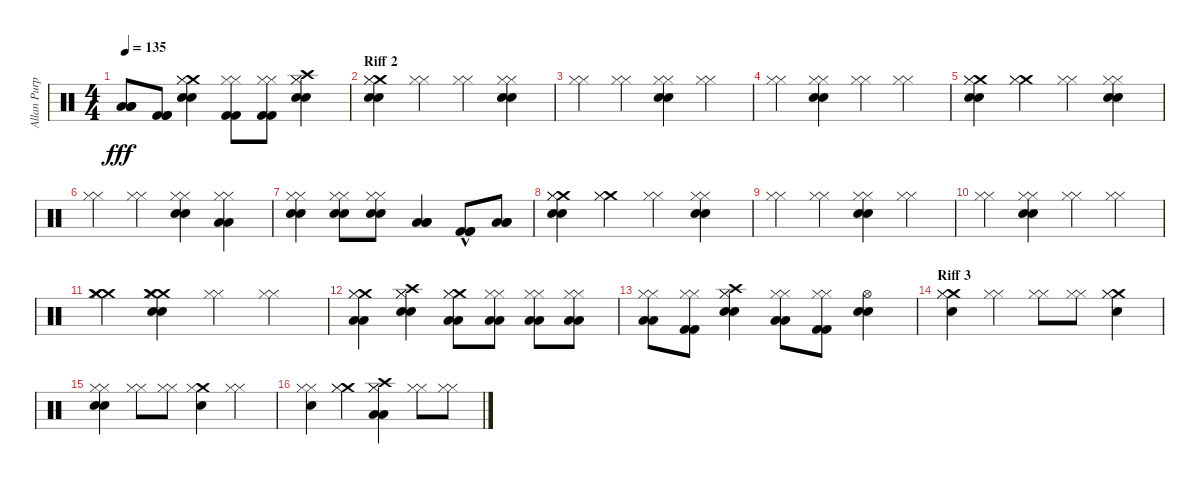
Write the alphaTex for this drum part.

\track ("Allan Purple" "Allan Purp") {instrument percussion}
\staff {score}
\articulation defaults
\ts (4 4)
\tempo 135
\clef neutral
\ks c
("Low Tom (hit)" "Low Tom (hit)" "Low Tom (hit)").8{dy fff} ("Kick (hit) 2" "Kick (hit) 2" "Kick (hit) 2").8 ("Crash medium (hit)" "Hi-Hat (closed)" "Hi-Hat (closed)" "Electric Snare (hit)" "Electric Snare (hit)").4 ("Hi-Hat (closed)" "Hi-Hat (closed)" "Kick (hit) 2" "Kick (hit) 2").8 ("Hi-Hat (closed)" "Hi-Hat (closed)" "Kick (hit) 2" "Kick (hit) 2").8 ("Crash high (hit)" "Hi-Hat (closed)" "Hi-Hat (closed)" "Electric Snare (hit)" "Electric Snare (hit)").4 |
\section ("" "Riff 2")
("Crash medium (hit)" "Hi-Hat (closed)" "Hi-Hat (closed)" "Electric Snare (hit)" "Electric Snare (hit)").4 ("Hi-Hat (closed)" "Hi-Hat (closed)").4 ("Hi-Hat (closed)" "Hi-Hat (closed)").4 ("Hi-Hat (closed)" "Hi-Hat (closed)" "Electric Snare (hit)" "Electric Snare (hit)").4 |
("Hi-Hat (closed)" "Hi-Hat (closed)").4 ("Hi-Hat (closed)" "Hi-Hat (closed)").4 ("Hi-Hat (closed)" "Hi-Hat (closed)" "Electric Snare (hit)" "Electric Snare (hit)").4 ("Hi-Hat (closed)" "Hi-Hat (closed)").4 |
("Hi-Hat (closed)" "Hi-Hat (closed)").4 ("Hi-Hat (closed)" "Hi-Hat (closed)" "Electric Snare (hit)" "Electric Snare (hit)").4 ("Hi-Hat (closed)" "Hi-Hat (closed)").4 ("Hi-Hat (closed)" "Hi-Hat (closed)").4 |
("Crash medium (hit)" "Hi-Hat (closed)" "Hi-Hat (closed)" "Electric Snare (hit)" "Electric Snare (hit)").4 ("Crash medium (hit)" "Hi-Hat (closed)" "Hi-Hat (closed)").4 ("Hi-Hat (closed)" "Hi-Hat (closed)").4 ("Hi-Hat (closed)" "Hi-Hat (closed)" "Electric Snare (hit)" "Electric Snare (hit)").4 |
("Hi-Hat (closed)" "Hi-Hat (closed)").4 ("Hi-Hat (closed)" "Hi-Hat (closed)").4 ("Hi-Hat (closed)" "Hi-Hat (closed)" "Electric Snare (hit)" "Electric Snare (hit)").4 ("Hi-Hat (closed)" "Hi-Hat (closed)" "Low Tom (hit)" "Low Tom (hit)").4 |
("Hi-Hat (closed)" "Hi-Hat (closed)" "Electric Snare (hit)" "Electric Snare (hit)").4 ("Hi-Hat (closed)" "Hi-Hat (closed)" "Electric Snare (hit)" "Electric Snare (hit)").8 ("Hi-Hat (closed)" "Hi-Hat (closed)" "Electric Snare (hit)" "Electric Snare (hit)").8 ("Low Tom (hit)" "Low Tom (hit)" "Low Tom (hit)").4 ("Kick (hit) 2" "Kick (hit) 2"{hac} "Kick (hit) 2").8 ("Low Tom (hit)" "Low Tom (hit)" "Low Tom (hit)").8 |
("Crash medium (hit)" "Hi-Hat (closed)" "Hi-Hat (closed)" "Electric Snare (hit)" "Electric Snare (hit)").4 ("Crash medium (hit)" "Hi-Hat (closed)" "Hi-Hat (closed)").4 ("Hi-Hat (closed)" "Hi-Hat (closed)").4 ("Hi-Hat (closed)" "Hi-Hat (closed)" "Electric Snare (hit)" "Electric Snare (hit)").4 |
("Hi-Hat (closed)" "Hi-Hat (closed)").4 ("Hi-Hat (closed)" "Hi-Hat (closed)").4 ("Hi-Hat (closed)" "Hi-Hat (closed)" "Electric Snare (hit)" "Electric Snare (hit)").4 ("Hi-Hat (closed)" "Hi-Hat (closed)").4 |
("Hi-Hat (closed)" "Hi-Hat (closed)").4 ("Hi-Hat (closed)" "Hi-Hat (closed)" "Electric Snare (hit)" "Electric Snare (hit)").4 ("Hi-Hat (closed)" "Hi-Hat (closed)").4 ("Hi-Hat (closed)" "Hi-Hat (closed)").4 |
("Crash medium (hit)" "Crash medium (hit)" "Hi-Hat (closed)" "Hi-Hat (closed)").4 ("Crash medium (hit)" "Crash medium (hit)" "Hi-Hat (closed)" "Hi-Hat (closed)" "Electric Snare (hit)" "Electric Snare (hit)").4 ("Hi-Hat (closed)" "Hi-Hat (closed)").4 ("Hi-Hat (closed)" "Hi-Hat (closed)").4 |
("Crash medium (hit)" "Hi-Hat (closed)" "Hi-Hat (closed)" "Low Tom (hit)" "Low Tom (hit)").4 ("Crash high (hit)" "Hi-Hat (closed)" "Hi-Hat (closed)" "Electric Snare (hit)" "Electric Snare (hit)").4 ("Crash medium (hit)" "Hi-Hat (closed)" "Hi-Hat (closed)" "Low Tom (hit)" "Low Tom (hit)").8 ("Hi-Hat (closed)" "Hi-Hat (closed)" "Low Tom (hit)" "Low Tom (hit)").8 ("Hi-Hat (closed)" "Hi-Hat (closed)" "Low Floor Tom (hit)" "Low Floor Tom (hit)").8 ("Hi-Hat (closed)" "Hi-Hat (closed)" "Low Floor Tom (hit)" "Low Floor Tom (hit)").8 |
("Hi-Hat (closed)" "Hi-Hat (closed)" "Low Tom (hit)" "Low Tom (hit)").8 ("Hi-Hat (closed)" "Hi-Hat (closed)" "Kick (hit) 2" "Kick (hit) 2").8 ("Crash high (hit)" "Hi-Hat (closed)" "Hi-Hat (closed)" "Electric Snare (hit)" "Electric Snare (hit)").4 ("Hi-Hat (closed)" "Hi-Hat (closed)" "Low Tom (hit)" "Low Tom (hit)").8 ("Hi-Hat (closed)" "Hi-Hat (closed)" "Kick (hit) 2" "Kick (hit) 2").8 ("Hi-Hat (open)" "Electric Snare (hit)" "Electric Snare (hit)").4 |
\section ("" "Riff 3")
("Crash medium (hit)" "Hi-Hat (closed)" "Hi-Hat (closed)" "Electric Snare (hit)").4 ("Hi-Hat (closed)" "Hi-Hat (closed)").4 ("Hi-Hat (closed)" "Hi-Hat (closed)").8 ("Hi-Hat (closed)" "Hi-Hat (closed)").8 ("Crash medium (hit)" "Hi-Hat (closed)" "Hi-Hat (closed)" "Electric Snare (hit)").4 |
("Hi-Hat (closed)" "Hi-Hat (closed)" "Electric Snare (hit)" "Electric Snare (hit)").4 ("Hi-Hat (closed)" "Hi-Hat (closed)").8 ("Hi-Hat (closed)" "Hi-Hat (closed)").8 ("Crash medium (hit)" "Snare (hit)" "Hi-Hat (closed)").4 ("Hi-Hat (closed)" "Hi-Hat (closed)").4 |
("Hi-Hat (closed)" "Hi-Hat (closed)" "Electric Snare (hit)").4 ("Crash medium (hit)" "Hi-Hat (closed)" "Hi-Hat (closed)").4 ("Crash high (hit)" "Hi-Hat (closed)" "Hi-Hat (closed)" "Low Tom (hit)" "Low Tom (hit)").4 ("Hi-Hat (closed)" "Hi-Hat (closed)").8 ("Hi-Hat (closed)" "Hi-Hat (closed)").8
